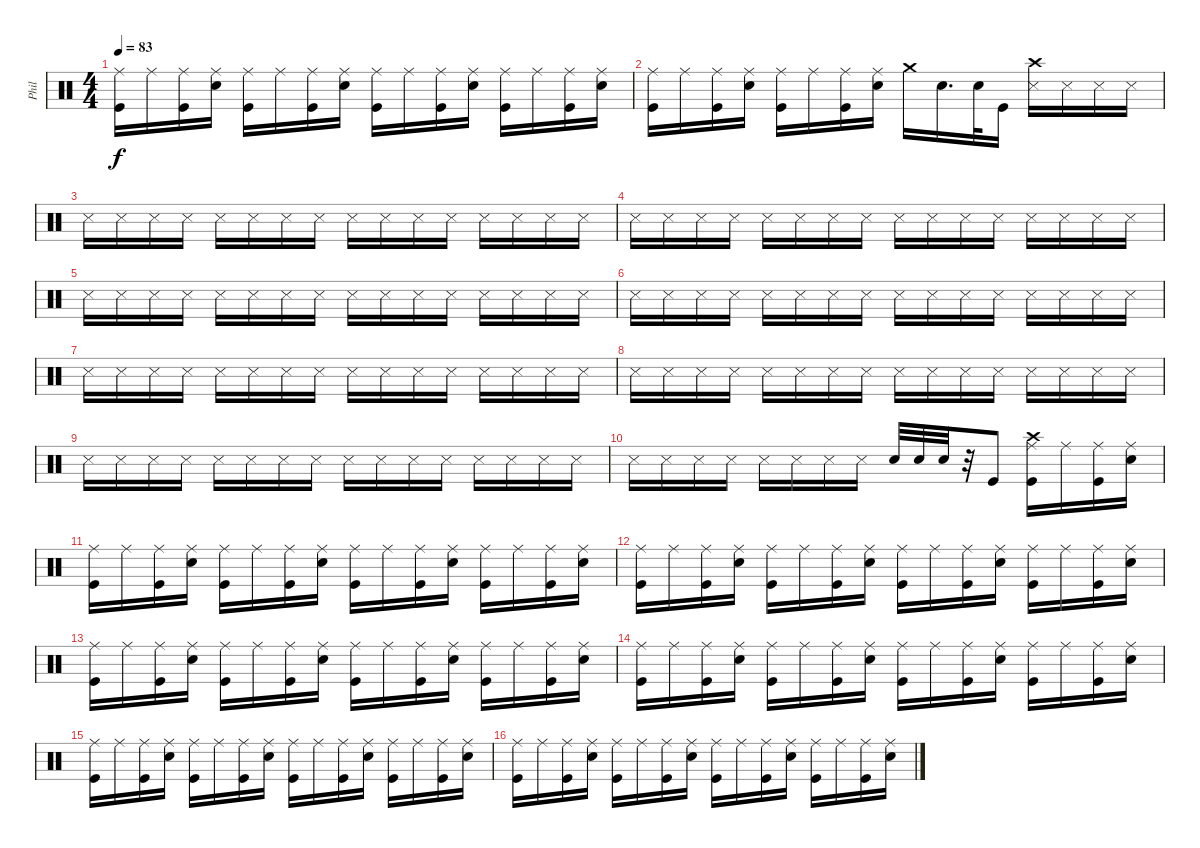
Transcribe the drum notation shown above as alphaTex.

\track ("Phil" "Phil") {instrument percussion}
\staff {score}
\articulation defaults
\ts (4 4)
\tempo 83
\clef neutral
\ks c
("Ride (middle)" "Kick (hit)").16{dy f} "Ride (middle)".16 ("Ride (middle)" "Kick (hit)").16 ("Ride (middle)" "Snare (hit) 2").16 ("Ride (middle)" "Kick (hit)").16 "Ride (middle)".16 ("Ride (middle)" "Kick (hit)").16 ("Ride (middle)" "Snare (hit) 2").16 ("Ride (middle)" "Kick (hit)").16 "Ride (middle)".16 ("Ride (middle)" "Kick (hit)").16 ("Ride (middle)" "Snare (hit) 2").16 ("Ride (middle)" "Kick (hit)").16 "Ride (middle)".16 ("Ride (middle)" "Kick (hit)").16 ("Ride (middle)" "Snare (hit) 2").16 |
("Ride (middle)" "Kick (hit)").16 "Ride (middle)".16 ("Ride (middle)" "Kick (hit)").16 ("Ride (middle)" "Snare (hit) 2").16 ("Ride (middle)" "Kick (hit)").16 "Ride (middle)".16 ("Ride (middle)" "Kick (hit)").16 ("Ride (middle)" "Snare (hit) 2").16 "Crash medium (hit)".16 "Snare (hit) 2".16{d} "Snare (hit) 2".32 "Kick (hit)".16 ("Crash high (hit)" "Snare (side stick) 3").16 "Snare (side stick) 3".16 "Snare (side stick) 3".16 "Snare (side stick) 3".16 |
"Snare (side stick) 3".16 "Snare (side stick) 3".16 "Snare (side stick) 3".16 "Snare (side stick) 3".16 "Snare (side stick) 3".16 "Snare (side stick) 3".16 "Snare (side stick) 3".16 "Snare (side stick) 3".16 "Snare (side stick) 3".16 "Snare (side stick) 3".16 "Snare (side stick) 3".16 "Snare (side stick) 3".16 "Snare (side stick) 3".16 "Snare (side stick) 3".16 "Snare (side stick) 3".16 "Snare (side stick) 3".16 |
"Snare (side stick) 3".16 "Snare (side stick) 3".16 "Snare (side stick) 3".16 "Snare (side stick) 3".16 "Snare (side stick) 3".16 "Snare (side stick) 3".16 "Snare (side stick) 3".16 "Snare (side stick) 3".16 "Snare (side stick) 3".16 "Snare (side stick) 3".16 "Snare (side stick) 3".16 "Snare (side stick) 3".16 "Snare (side stick) 3".16 "Snare (side stick) 3".16 "Snare (side stick) 3".16 "Snare (side stick) 3".16 |
"Snare (side stick) 3".16 "Snare (side stick) 3".16 "Snare (side stick) 3".16 "Snare (side stick) 3".16 "Snare (side stick) 3".16 "Snare (side stick) 3".16 "Snare (side stick) 3".16 "Snare (side stick) 3".16 "Snare (side stick) 3".16 "Snare (side stick) 3".16 "Snare (side stick) 3".16 "Snare (side stick) 3".16 "Snare (side stick) 3".16 "Snare (side stick) 3".16 "Snare (side stick) 3".16 "Snare (side stick) 3".16 |
"Snare (side stick) 3".16 "Snare (side stick) 3".16 "Snare (side stick) 3".16 "Snare (side stick) 3".16 "Snare (side stick) 3".16 "Snare (side stick) 3".16 "Snare (side stick) 3".16 "Snare (side stick) 3".16 "Snare (side stick) 3".16 "Snare (side stick) 3".16 "Snare (side stick) 3".16 "Snare (side stick) 3".16 "Snare (side stick) 3".16 "Snare (side stick) 3".16 "Snare (side stick) 3".16 "Snare (side stick) 3".16 |
"Snare (side stick) 3".16 "Snare (side stick) 3".16 "Snare (side stick) 3".16 "Snare (side stick) 3".16 "Snare (side stick) 3".16 "Snare (side stick) 3".16 "Snare (side stick) 3".16 "Snare (side stick) 3".16 "Snare (side stick) 3".16 "Snare (side stick) 3".16 "Snare (side stick) 3".16 "Snare (side stick) 3".16 "Snare (side stick) 3".16 "Snare (side stick) 3".16 "Snare (side stick) 3".16 "Snare (side stick) 3".16 |
"Snare (side stick) 3".16 "Snare (side stick) 3".16 "Snare (side stick) 3".16 "Snare (side stick) 3".16 "Snare (side stick) 3".16 "Snare (side stick) 3".16 "Snare (side stick) 3".16 "Snare (side stick) 3".16 "Snare (side stick) 3".16 "Snare (side stick) 3".16 "Snare (side stick) 3".16 "Snare (side stick) 3".16 "Snare (side stick) 3".16 "Snare (side stick) 3".16 "Snare (side stick) 3".16 "Snare (side stick) 3".16 |
"Snare (side stick) 3".16 "Snare (side stick) 3".16 "Snare (side stick) 3".16 "Snare (side stick) 3".16 "Snare (side stick) 3".16 "Snare (side stick) 3".16 "Snare (side stick) 3".16 "Snare (side stick) 3".16 "Snare (side stick) 3".16 "Snare (side stick) 3".16 "Snare (side stick) 3".16 "Snare (side stick) 3".16 "Snare (side stick) 3".16 "Snare (side stick) 3".16 "Snare (side stick) 3".16 "Snare (side stick) 3".16 |
"Snare (side stick) 3".16 "Snare (side stick) 3".16 "Snare (side stick) 3".16 "Snare (side stick) 3".16 "Snare (side stick) 3".16 "Snare (side stick) 3".16 "Snare (side stick) 3".16 "Snare (side stick) 3".16 "Snare (hit) 2".32 "Snare (hit) 2".32 "Snare (hit) 2".32 r.32 "Kick (hit)".8 ("Ride (middle)" "Kick (hit)" "Crash high (hit)").16 "Ride (middle)".16 ("Ride (middle)" "Kick (hit)").16 ("Ride (middle)" "Snare (hit) 2").16 |
("Ride (middle)" "Kick (hit)").16 "Ride (middle)".16 ("Ride (middle)" "Kick (hit)").16 ("Ride (middle)" "Snare (hit) 2").16 ("Ride (middle)" "Kick (hit)").16 "Ride (middle)".16 ("Ride (middle)" "Kick (hit)").16 ("Ride (middle)" "Snare (hit) 2").16 ("Ride (middle)" "Kick (hit)").16 "Ride (middle)".16 ("Ride (middle)" "Kick (hit)").16 ("Ride (middle)" "Snare (hit) 2").16 ("Ride (middle)" "Kick (hit)").16 "Ride (middle)".16 ("Ride (middle)" "Kick (hit)").16 ("Ride (middle)" "Snare (hit) 2").16 |
("Ride (middle)" "Kick (hit)").16 "Ride (middle)".16 ("Ride (middle)" "Kick (hit)").16 ("Ride (middle)" "Snare (hit) 2").16 ("Ride (middle)" "Kick (hit)").16 "Ride (middle)".16 ("Ride (middle)" "Kick (hit)").16 ("Ride (middle)" "Snare (hit) 2").16 ("Ride (middle)" "Kick (hit)").16 "Ride (middle)".16 ("Ride (middle)" "Kick (hit)").16 ("Ride (middle)" "Snare (hit) 2").16 ("Ride (middle)" "Kick (hit)").16 "Ride (middle)".16 ("Ride (middle)" "Kick (hit)").16 ("Ride (middle)" "Snare (hit) 2").16 |
("Ride (middle)" "Kick (hit)").16 "Ride (middle)".16 ("Ride (middle)" "Kick (hit)").16 ("Ride (middle)" "Snare (hit) 2").16 ("Ride (middle)" "Kick (hit)").16 "Ride (middle)".16 ("Ride (middle)" "Kick (hit)").16 ("Ride (middle)" "Snare (hit) 2").16 ("Ride (middle)" "Kick (hit)").16 "Ride (middle)".16 ("Ride (middle)" "Kick (hit)").16 ("Ride (middle)" "Snare (hit) 2").16 ("Ride (middle)" "Kick (hit)").16 "Ride (middle)".16 ("Ride (middle)" "Kick (hit)").16 ("Ride (middle)" "Snare (hit) 2").16 |
("Ride (middle)" "Kick (hit)").16 "Ride (middle)".16 ("Ride (middle)" "Kick (hit)").16 ("Ride (middle)" "Snare (hit) 2").16 ("Ride (middle)" "Kick (hit)").16 "Ride (middle)".16 ("Ride (middle)" "Kick (hit)").16 ("Ride (middle)" "Snare (hit) 2").16 ("Ride (middle)" "Kick (hit)").16 "Ride (middle)".16 ("Ride (middle)" "Kick (hit)").16 ("Ride (middle)" "Snare (hit) 2").16 ("Ride (middle)" "Kick (hit)").16 "Ride (middle)".16 ("Ride (middle)" "Kick (hit)").16 ("Ride (middle)" "Snare (hit) 2").16 |
("Ride (middle)" "Kick (hit)").16 "Ride (middle)".16 ("Ride (middle)" "Kick (hit)").16 ("Ride (middle)" "Snare (hit) 2").16 ("Ride (middle)" "Kick (hit)").16 "Ride (middle)".16 ("Ride (middle)" "Kick (hit)").16 ("Ride (middle)" "Snare (hit) 2").16 ("Ride (middle)" "Kick (hit)").16 "Ride (middle)".16 ("Ride (middle)" "Kick (hit)").16 ("Ride (middle)" "Snare (hit) 2").16 ("Ride (middle)" "Kick (hit)").16 "Ride (middle)".16 ("Ride (middle)" "Kick (hit)").16 ("Ride (middle)" "Snare (hit) 2").16 |
("Ride (middle)" "Kick (hit)").16 "Ride (middle)".16 ("Ride (middle)" "Kick (hit)").16 ("Ride (middle)" "Snare (hit) 2").16 ("Ride (middle)" "Kick (hit)").16 "Ride (middle)".16 ("Ride (middle)" "Kick (hit)").16 ("Ride (middle)" "Snare (hit) 2").16 ("Ride (middle)" "Kick (hit)").16 "Ride (middle)".16 ("Ride (middle)" "Kick (hit)").16 ("Ride (middle)" "Snare (hit) 2").16 ("Ride (middle)" "Kick (hit)").16 "Ride (middle)".16 ("Ride (middle)" "Kick (hit)").16 ("Ride (middle)" "Snare (hit) 2").16
